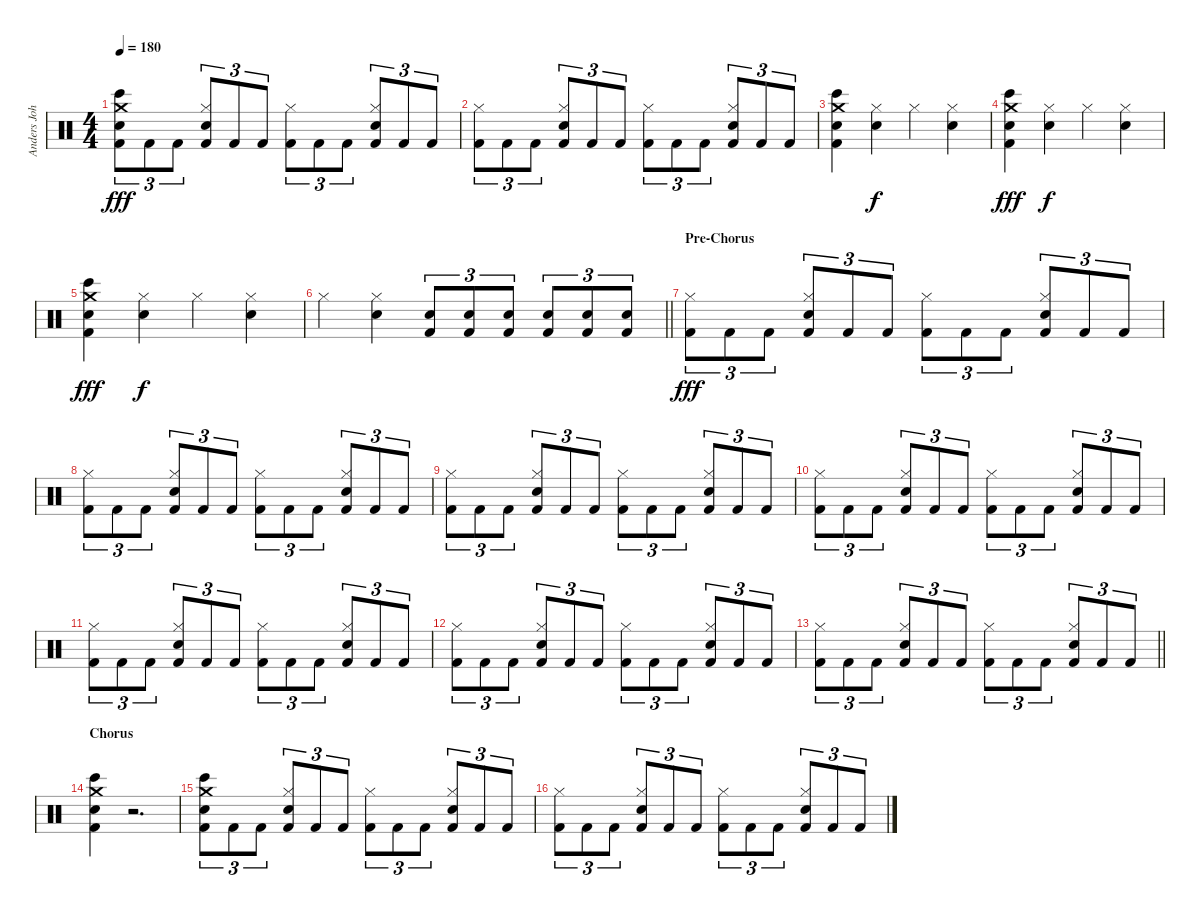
\track ("Anders Johansson" "Anders Joh") {instrument percussion}
\staff {score}
\articulation defaults
\ts (4 4)
\tempo 180
\clef neutral
\ks c
("Bongo High (hit)" "Crash medium (hit)" "Snare (hit) 2" "Kick (hit) 2").8{tu (3 2) dy fff} "Kick (hit) 2".8{tu (3 2)} "Kick (hit) 2".8{tu (3 2)} ("Hi-Hat (closed)" "Electric Snare (hit)" "Kick (hit) 2").8{tu (3 2)} "Kick (hit) 2".8{tu (3 2)} "Kick (hit) 2".8{tu (3 2)} ("Hi-Hat (closed)" "Kick (hit) 2").8{tu (3 2)} "Kick (hit) 2".8{tu (3 2)} "Kick (hit) 2".8{tu (3 2)} ("Hi-Hat (closed)" "Electric Snare (hit)" "Kick (hit) 2").8{tu (3 2)} "Kick (hit) 2".8{tu (3 2)} "Kick (hit) 2".8{tu (3 2)} |
("Hi-Hat (closed)" "Kick (hit) 2").8{tu (3 2)} "Kick (hit) 2".8{tu (3 2)} "Kick (hit) 2".8{tu (3 2)} ("Hi-Hat (closed)" "Electric Snare (hit)" "Kick (hit) 2").8{tu (3 2)} "Kick (hit) 2".8{tu (3 2)} "Kick (hit) 2".8{tu (3 2)} ("Hi-Hat (closed)" "Kick (hit) 2").8{tu (3 2)} "Kick (hit) 2".8{tu (3 2)} "Kick (hit) 2".8{tu (3 2)} ("Hi-Hat (closed)" "Electric Snare (hit)" "Kick (hit) 2").8{tu (3 2)} "Kick (hit) 2".8{tu (3 2)} "Kick (hit) 2".8{tu (3 2)} |
("Bongo High (hit)" "Crash medium (hit)" "Snare (hit) 2" "Kick (hit) 2").4 ("Hi-Hat (closed)" "Electric Snare (hit)").4{dy f} "Hi-Hat (closed)".4 ("Hi-Hat (closed)" "Electric Snare (hit)").4 |
("Bongo High (hit)" "Crash medium (hit)" "Snare (hit) 2" "Kick (hit) 2").4{dy fff} ("Hi-Hat (closed)" "Electric Snare (hit)").4{dy f} "Hi-Hat (closed)".4 ("Hi-Hat (closed)" "Electric Snare (hit)").4 |
("Bongo High (hit)" "Crash medium (hit)" "Snare (hit) 2" "Kick (hit) 2").4{dy fff} ("Hi-Hat (closed)" "Electric Snare (hit)").4{dy f} "Hi-Hat (closed)".4 ("Hi-Hat (closed)" "Electric Snare (hit)").4 |
\barLineRight lightlight "Hi-Hat (closed)".4
("Hi-Hat (closed)" "Electric Snare (hit)").4 ("Snare (hit) 2" "Kick (hit) 2").8{tu (3 2)} ("Electric Snare (hit)" "Kick (hit) 2").8{tu (3 2)} ("Snare (hit) 2" "Kick (hit) 2").8{tu (3 2)} ("Snare (hit) 2" "Kick (hit) 2").8{tu (3 2)} ("Electric Snare (hit)" "Kick (hit) 2").8{tu (3 2)} ("Snare (hit) 2" "Kick (hit) 2").8{tu (3 2)} |
\section ("" "Pre-Chorus")
("Hi-Hat (closed)" "Kick (hit) 2").8{tu (3 2) dy fff} "Kick (hit) 2".8{tu (3 2)} "Kick (hit) 2".8{tu (3 2)} ("Hi-Hat (closed)" "Electric Snare (hit)" "Kick (hit) 2").8{tu (3 2)} "Kick (hit) 2".8{tu (3 2)} "Kick (hit) 2".8{tu (3 2)} ("Hi-Hat (closed)" "Kick (hit) 2").8{tu (3 2)} "Kick (hit) 2".8{tu (3 2)} "Kick (hit) 2".8{tu (3 2)} ("Hi-Hat (closed)" "Electric Snare (hit)" "Kick (hit) 2").8{tu (3 2)} "Kick (hit) 2".8{tu (3 2)} "Kick (hit) 2".8{tu (3 2)} |
("Hi-Hat (closed)" "Kick (hit) 2").8{tu (3 2)} "Kick (hit) 2".8{tu (3 2)} "Kick (hit) 2".8{tu (3 2)} ("Hi-Hat (closed)" "Electric Snare (hit)" "Kick (hit) 2").8{tu (3 2)} "Kick (hit) 2".8{tu (3 2)} "Kick (hit) 2".8{tu (3 2)} ("Hi-Hat (closed)" "Kick (hit) 2").8{tu (3 2)} "Kick (hit) 2".8{tu (3 2)} "Kick (hit) 2".8{tu (3 2)} ("Hi-Hat (closed)" "Electric Snare (hit)" "Kick (hit) 2").8{tu (3 2)} "Kick (hit) 2".8{tu (3 2)} "Kick (hit) 2".8{tu (3 2)} |
("Hi-Hat (closed)" "Kick (hit) 2").8{tu (3 2)} "Kick (hit) 2".8{tu (3 2)} "Kick (hit) 2".8{tu (3 2)} ("Hi-Hat (closed)" "Electric Snare (hit)" "Kick (hit) 2").8{tu (3 2)} "Kick (hit) 2".8{tu (3 2)} "Kick (hit) 2".8{tu (3 2)} ("Hi-Hat (closed)" "Kick (hit) 2").8{tu (3 2)} "Kick (hit) 2".8{tu (3 2)} "Kick (hit) 2".8{tu (3 2)} ("Hi-Hat (closed)" "Electric Snare (hit)" "Kick (hit) 2").8{tu (3 2)} "Kick (hit) 2".8{tu (3 2)} "Kick (hit) 2".8{tu (3 2)} |
("Hi-Hat (closed)" "Kick (hit) 2").8{tu (3 2)} "Kick (hit) 2".8{tu (3 2)} "Kick (hit) 2".8{tu (3 2)} ("Hi-Hat (closed)" "Electric Snare (hit)" "Kick (hit) 2").8{tu (3 2)} "Kick (hit) 2".8{tu (3 2)} "Kick (hit) 2".8{tu (3 2)} ("Hi-Hat (closed)" "Kick (hit) 2").8{tu (3 2)} "Kick (hit) 2".8{tu (3 2)} "Kick (hit) 2".8{tu (3 2)} ("Hi-Hat (closed)" "Electric Snare (hit)" "Kick (hit) 2").8{tu (3 2)} "Kick (hit) 2".8{tu (3 2)} "Kick (hit) 2".8{tu (3 2)} |
("Hi-Hat (closed)" "Kick (hit) 2").8{tu (3 2)} "Kick (hit) 2".8{tu (3 2)} "Kick (hit) 2".8{tu (3 2)} ("Hi-Hat (closed)" "Electric Snare (hit)" "Kick (hit) 2").8{tu (3 2)} "Kick (hit) 2".8{tu (3 2)} "Kick (hit) 2".8{tu (3 2)} ("Hi-Hat (closed)" "Kick (hit) 2").8{tu (3 2)} "Kick (hit) 2".8{tu (3 2)} "Kick (hit) 2".8{tu (3 2)} ("Hi-Hat (closed)" "Electric Snare (hit)" "Kick (hit) 2").8{tu (3 2)} "Kick (hit) 2".8{tu (3 2)} "Kick (hit) 2".8{tu (3 2)} |
("Hi-Hat (closed)" "Kick (hit) 2").8{tu (3 2)} "Kick (hit) 2".8{tu (3 2)} "Kick (hit) 2".8{tu (3 2)} ("Hi-Hat (closed)" "Electric Snare (hit)" "Kick (hit) 2").8{tu (3 2)} "Kick (hit) 2".8{tu (3 2)} "Kick (hit) 2".8{tu (3 2)} ("Hi-Hat (closed)" "Kick (hit) 2").8{tu (3 2)} "Kick (hit) 2".8{tu (3 2)} "Kick (hit) 2".8{tu (3 2)} ("Hi-Hat (closed)" "Electric Snare (hit)" "Kick (hit) 2").8{tu (3 2)} "Kick (hit) 2".8{tu (3 2)} "Kick (hit) 2".8{tu (3 2)} |
\barLineRight lightlight
("Hi-Hat (closed)" "Kick (hit) 2").8{tu (3 2)} "Kick (hit) 2".8{tu (3 2)} "Kick (hit) 2".8{tu (3 2)} ("Hi-Hat (closed)" "Electric Snare (hit)" "Kick (hit) 2").8{tu (3 2)} "Kick (hit) 2".8{tu (3 2)} "Kick (hit) 2".8{tu (3 2)} ("Hi-Hat (closed)" "Kick (hit) 2").8{tu (3 2)} "Kick (hit) 2".8{tu (3 2)} "Kick (hit) 2".8{tu (3 2)} ("Hi-Hat (closed)" "Electric Snare (hit)" "Kick (hit) 2").8{tu (3 2)} "Kick (hit) 2".8{tu (3 2)} "Kick (hit) 2".8{tu (3 2)} |
\section ("" "Chorus")
("Bongo High (hit)" "Crash medium (hit)" "Snare (hit) 2" "Kick (hit) 2").4 r.2{d} |
("Bongo High (hit)" "Crash medium (hit)" "Snare (hit) 2" "Kick (hit) 2").8{tu (3 2)} "Kick (hit) 2".8{tu (3 2)} "Kick (hit) 2".8{tu (3 2)} ("Hi-Hat (closed)" "Electric Snare (hit)" "Kick (hit) 2").8{tu (3 2)} "Kick (hit) 2".8{tu (3 2)} "Kick (hit) 2".8{tu (3 2)} ("Hi-Hat (closed)" "Kick (hit) 2").8{tu (3 2)} "Kick (hit) 2".8{tu (3 2)} "Kick (hit) 2".8{tu (3 2)} ("Hi-Hat (closed)" "Electric Snare (hit)" "Kick (hit) 2").8{tu (3 2)} "Kick (hit) 2".8{tu (3 2)} "Kick (hit) 2".8{tu (3 2)} |
("Hi-Hat (closed)" "Kick (hit) 2").8{tu (3 2)} "Kick (hit) 2".8{tu (3 2)} "Kick (hit) 2".8{tu (3 2)} ("Hi-Hat (closed)" "Electric Snare (hit)" "Kick (hit) 2").8{tu (3 2)} "Kick (hit) 2".8{tu (3 2)} "Kick (hit) 2".8{tu (3 2)} ("Hi-Hat (closed)" "Kick (hit) 2").8{tu (3 2)} "Kick (hit) 2".8{tu (3 2)} "Kick (hit) 2".8{tu (3 2)} ("Hi-Hat (closed)" "Electric Snare (hit)" "Kick (hit) 2").8{tu (3 2)} "Kick (hit) 2".8{tu (3 2)} "Kick (hit) 2".8{tu (3 2)}
